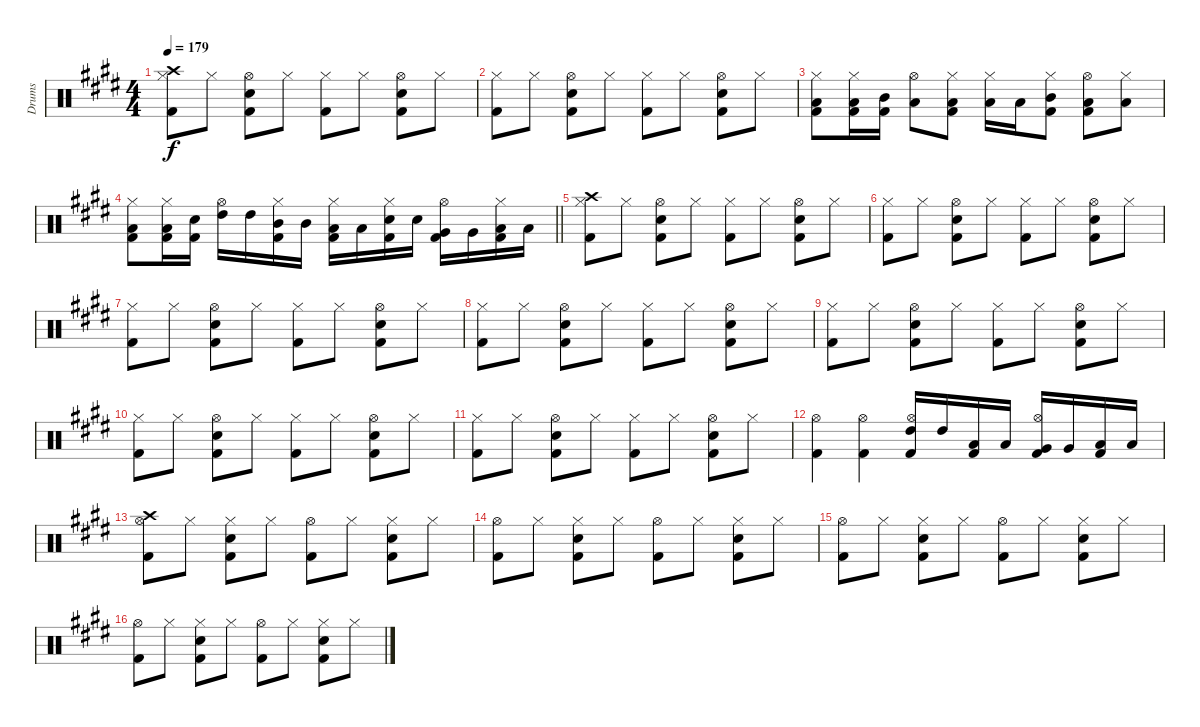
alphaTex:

\track ("Drums" "Drums") {instrument percussion}
\staff {score}
\articulation defaults
\ts (4 4)
\tempo 179
\clef neutral
\ks e
("Hi-Hat (closed)" "Crash high (hit)" "Kick (hit) 2").8{dy f} "Hi-Hat (closed)".8 ("Hi-Hat (open)" "Snare (hit) 2" "Kick (hit) 2").8 "Hi-Hat (closed)".8 ("Hi-Hat (closed)" "Kick (hit) 2").8 "Hi-Hat (closed)".8 ("Hi-Hat (open)" "Snare (hit) 2" "Kick (hit) 2").8 "Hi-Hat (closed)".8 |
("Hi-Hat (closed)" "Kick (hit) 2").8 "Hi-Hat (closed)".8 ("Hi-Hat (open)" "Snare (hit) 2" "Kick (hit) 2").8 "Hi-Hat (closed)".8 ("Hi-Hat (closed)" "Kick (hit) 2").8 "Hi-Hat (closed)".8 ("Hi-Hat (open)" "Snare (hit) 2" "Kick (hit) 2").8 "Hi-Hat (closed)".8 |
("Hi-Hat (closed)" "Low Tom (hit)" "Kick (hit) 2").8 ("Hi-Hat (closed)" "Low Tom (hit)" "Kick (hit) 2").16 ("Mid Tom (hit)" "Kick (hit) 2").16 ("Hi-Hat (open)" "Low Tom (hit)").8 ("Hi-Hat (closed)" "Low Tom (hit)" "Kick (hit) 2").8 ("Hi-Hat (closed)" "Low Tom (hit)").16 "Low Tom (hit)".16 ("Hi-Hat (closed)" "Mid Tom (hit)" "Kick (hit) 2").8 ("Hi-Hat (open)" "Low Tom (hit)" "Kick (hit) 2").8 ("Hi-Hat (closed)" "Low Tom (hit)").8 |
\barLineRight lightlight
("Hi-Hat (closed)" "Low Tom (hit)" "Kick (hit) 2").8 ("Hi-Hat (closed)" "Low Tom (hit)" "Kick (hit) 2").16 ("Snare (hit) 2" "Kick (hit) 2").16 ("Hi-Hat (open)" "High Tom (hit)").16 "High Tom (hit)".16 ("Hi-Hat (closed)" "Mid Tom (hit)" "Kick (hit) 2").16 "Mid Tom (hit)".16 ("Hi-Hat (closed)" "Low Tom (hit)" "Kick (hit) 2").16 "Low Tom (hit)".16 ("Hi-Hat (closed)" "Snare (hit) 2" "Kick (hit) 2").16 "Snare (hit) 2".16 ("Hi-Hat (open)" "Very Low Tom (hit)" "Kick (hit) 2").16 "Very Low Tom (hit)".16 ("Hi-Hat (closed)" "Low Floor Tom (hit)" "Kick (hit) 2").16 "Low Floor Tom (hit)".16 |
("Hi-Hat (closed)" "Crash high (hit)" "Kick (hit) 2").8 "Hi-Hat (closed)".8 ("Hi-Hat (open)" "Snare (hit) 2" "Kick (hit) 2").8 "Hi-Hat (closed)".8 ("Hi-Hat (closed)" "Kick (hit) 2").8 "Hi-Hat (closed)".8 ("Hi-Hat (open)" "Snare (hit) 2" "Kick (hit) 2").8 "Hi-Hat (closed)".8 |
("Hi-Hat (closed)" "Kick (hit) 2").8 "Hi-Hat (closed)".8 ("Hi-Hat (open)" "Snare (hit) 2" "Kick (hit) 2").8 "Hi-Hat (closed)".8 ("Hi-Hat (closed)" "Kick (hit) 2").8 "Hi-Hat (closed)".8 ("Hi-Hat (open)" "Snare (hit) 2" "Kick (hit) 2").8 "Hi-Hat (closed)".8 |
("Hi-Hat (closed)" "Kick (hit) 2").8 "Hi-Hat (closed)".8 ("Hi-Hat (open)" "Snare (hit) 2" "Kick (hit) 2").8 "Hi-Hat (closed)".8 ("Hi-Hat (closed)" "Kick (hit) 2").8 "Hi-Hat (closed)".8 ("Hi-Hat (open)" "Snare (hit) 2" "Kick (hit) 2").8 "Hi-Hat (closed)".8 |
("Hi-Hat (closed)" "Kick (hit) 2").8 "Hi-Hat (closed)".8 ("Hi-Hat (open)" "Snare (hit) 2" "Kick (hit) 2").8 "Hi-Hat (closed)".8 ("Hi-Hat (closed)" "Kick (hit) 2").8 "Hi-Hat (closed)".8 ("Hi-Hat (open)" "Snare (hit) 2" "Kick (hit) 2").8 "Hi-Hat (closed)".8 |
("Hi-Hat (closed)" "Kick (hit) 2").8 "Hi-Hat (closed)".8 ("Hi-Hat (open)" "Snare (hit) 2" "Kick (hit) 2").8 "Hi-Hat (closed)".8 ("Hi-Hat (closed)" "Kick (hit) 2").8 "Hi-Hat (closed)".8 ("Hi-Hat (open)" "Snare (hit) 2" "Kick (hit) 2").8 "Hi-Hat (closed)".8 |
("Hi-Hat (closed)" "Kick (hit) 2").8 "Hi-Hat (closed)".8 ("Hi-Hat (open)" "Snare (hit) 2" "Kick (hit) 2").8 "Hi-Hat (closed)".8 ("Hi-Hat (closed)" "Kick (hit) 2").8 "Hi-Hat (closed)".8 ("Hi-Hat (open)" "Snare (hit) 2" "Kick (hit) 2").8 "Hi-Hat (closed)".8 |
("Hi-Hat (closed)" "Kick (hit) 2").8 "Hi-Hat (closed)".8 ("Hi-Hat (open)" "Snare (hit) 2" "Kick (hit) 2").8 "Hi-Hat (closed)".8 ("Hi-Hat (closed)" "Kick (hit) 2").8 "Hi-Hat (closed)".8 ("Hi-Hat (open)" "Snare (hit) 2" "Kick (hit) 2").8 "Hi-Hat (closed)".8 |
("Hi-Hat (open)" "Kick (hit) 2").4 ("Hi-Hat (open)" "Kick (hit) 2").4 ("Hi-Hat (open)" "High Tom (hit)" "Kick (hit) 2").16 "High Tom (hit)".16 ("Low Tom (hit)" "Kick (hit) 2").16 "Low Tom (hit)".16 ("Hi-Hat (open)" "Very Low Tom (hit)" "Kick (hit) 2").16 "Very Low Tom (hit)".16 ("Low Floor Tom (hit)" "Kick (hit) 2").16 "Low Floor Tom (hit)".16 |
("Hi-Hat (open)" "Crash high (hit)" "Kick (hit) 2").8 "Hi-Hat (closed)".8 ("Hi-Hat (closed)" "Snare (hit) 2" "Kick (hit) 2").8 "Hi-Hat (closed)".8 ("Hi-Hat (open)" "Kick (hit) 2").8 "Hi-Hat (closed)".8 ("Hi-Hat (closed)" "Snare (hit) 2" "Kick (hit) 2").8 "Hi-Hat (closed)".8 |
("Hi-Hat (open)" "Kick (hit) 2").8 "Hi-Hat (closed)".8 ("Hi-Hat (closed)" "Snare (hit) 2" "Kick (hit) 2").8 "Hi-Hat (closed)".8 ("Hi-Hat (open)" "Kick (hit) 2").8 "Hi-Hat (closed)".8 ("Hi-Hat (closed)" "Snare (hit) 2" "Kick (hit) 2").8 "Hi-Hat (closed)".8 |
("Hi-Hat (open)" "Kick (hit) 2").8 "Hi-Hat (closed)".8 ("Hi-Hat (closed)" "Snare (hit) 2" "Kick (hit) 2").8 "Hi-Hat (closed)".8 ("Hi-Hat (open)" "Kick (hit) 2").8 "Hi-Hat (closed)".8 ("Hi-Hat (closed)" "Snare (hit) 2" "Kick (hit) 2").8 "Hi-Hat (closed)".8 |
("Hi-Hat (open)" "Kick (hit) 2").8 "Hi-Hat (closed)".8 ("Hi-Hat (closed)" "Snare (hit) 2" "Kick (hit) 2").8 "Hi-Hat (closed)".8 ("Hi-Hat (open)" "Kick (hit) 2").8 "Hi-Hat (closed)".8 ("Hi-Hat (closed)" "Snare (hit) 2" "Kick (hit) 2").8 "Hi-Hat (closed)".8
